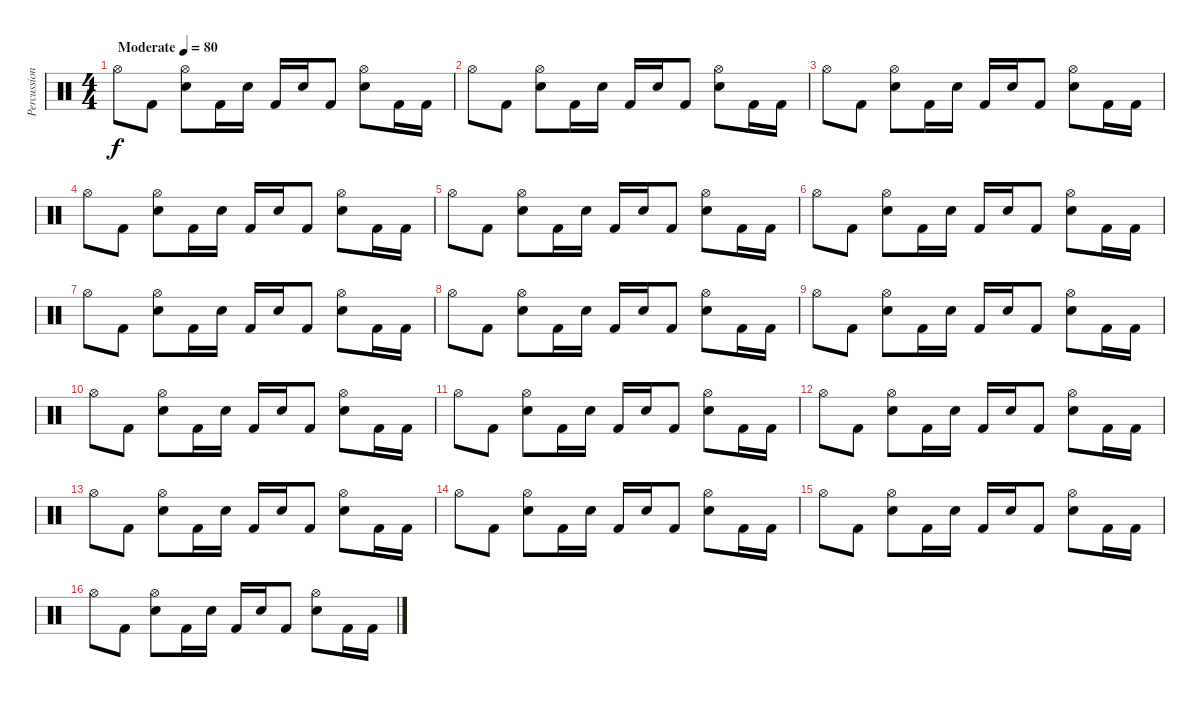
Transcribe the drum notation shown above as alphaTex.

\track ("Percussions" "Percussion") {instrument percussion}
\staff {score}
\articulation defaults
\ts (4 4)
\tempo (80 "Moderate")
\clef neutral
\ks aminor "Hi-Hat (open)".8{dy f} "Kick (hit) 2".8
("Hi-Hat (open)" "Electric Snare (hit)").8 "Kick (hit) 2".16 "Electric Snare (hit)".16 "Kick (hit) 2".16 "Electric Snare (hit)".16 "Kick (hit) 2".8 ("Hi-Hat (open)" "Electric Snare (hit)").8 "Kick (hit) 2".16 "Kick (hit) 2".16 |
"Hi-Hat (open)".8 "Kick (hit) 2".8 ("Hi-Hat (open)" "Electric Snare (hit)").8 "Kick (hit) 2".16 "Electric Snare (hit)".16 "Kick (hit) 2".16 "Electric Snare (hit)".16 "Kick (hit) 2".8 ("Hi-Hat (open)" "Electric Snare (hit)").8 "Kick (hit) 2".16 "Kick (hit) 2".16 |
"Hi-Hat (open)".8 "Kick (hit) 2".8 ("Hi-Hat (open)" "Electric Snare (hit)").8 "Kick (hit) 2".16 "Electric Snare (hit)".16 "Kick (hit) 2".16 "Electric Snare (hit)".16 "Kick (hit) 2".8 ("Hi-Hat (open)" "Electric Snare (hit)").8 "Kick (hit) 2".16 "Kick (hit) 2".16 |
"Hi-Hat (open)".8 "Kick (hit) 2".8 ("Hi-Hat (open)" "Electric Snare (hit)").8 "Kick (hit) 2".16 "Electric Snare (hit)".16 "Kick (hit) 2".16 "Electric Snare (hit)".16 "Kick (hit) 2".8 ("Hi-Hat (open)" "Electric Snare (hit)").8 "Kick (hit) 2".16 "Kick (hit) 2".16 |
"Hi-Hat (open)".8 "Kick (hit) 2".8 ("Hi-Hat (open)" "Electric Snare (hit)").8 "Kick (hit) 2".16 "Electric Snare (hit)".16 "Kick (hit) 2".16 "Electric Snare (hit)".16 "Kick (hit) 2".8 ("Hi-Hat (open)" "Electric Snare (hit)").8 "Kick (hit) 2".16 "Kick (hit) 2".16 |
"Hi-Hat (open)".8 "Kick (hit) 2".8 ("Hi-Hat (open)" "Electric Snare (hit)").8 "Kick (hit) 2".16 "Electric Snare (hit)".16 "Kick (hit) 2".16 "Electric Snare (hit)".16 "Kick (hit) 2".8 ("Hi-Hat (open)" "Electric Snare (hit)").8 "Kick (hit) 2".16 "Kick (hit) 2".16 |
"Hi-Hat (open)".8 "Kick (hit) 2".8 ("Hi-Hat (open)" "Electric Snare (hit)").8 "Kick (hit) 2".16 "Electric Snare (hit)".16 "Kick (hit) 2".16 "Electric Snare (hit)".16 "Kick (hit) 2".8 ("Hi-Hat (open)" "Electric Snare (hit)").8 "Kick (hit) 2".16 "Kick (hit) 2".16 |
"Hi-Hat (open)".8 "Kick (hit) 2".8 ("Hi-Hat (open)" "Electric Snare (hit)").8 "Kick (hit) 2".16 "Electric Snare (hit)".16 "Kick (hit) 2".16 "Electric Snare (hit)".16 "Kick (hit) 2".8 ("Hi-Hat (open)" "Electric Snare (hit)").8 "Kick (hit) 2".16 "Kick (hit) 2".16 |
"Hi-Hat (open)".8 "Kick (hit) 2".8 ("Hi-Hat (open)" "Electric Snare (hit)").8 "Kick (hit) 2".16 "Electric Snare (hit)".16 "Kick (hit) 2".16 "Electric Snare (hit)".16 "Kick (hit) 2".8 ("Hi-Hat (open)" "Electric Snare (hit)").8 "Kick (hit) 2".16 "Kick (hit) 2".16 |
"Hi-Hat (open)".8 "Kick (hit) 2".8 ("Hi-Hat (open)" "Electric Snare (hit)").8 "Kick (hit) 2".16 "Electric Snare (hit)".16 "Kick (hit) 2".16 "Electric Snare (hit)".16 "Kick (hit) 2".8 ("Hi-Hat (open)" "Electric Snare (hit)").8 "Kick (hit) 2".16 "Kick (hit) 2".16 |
"Hi-Hat (open)".8 "Kick (hit) 2".8 ("Hi-Hat (open)" "Electric Snare (hit)").8 "Kick (hit) 2".16 "Electric Snare (hit)".16 "Kick (hit) 2".16 "Electric Snare (hit)".16 "Kick (hit) 2".8 ("Hi-Hat (open)" "Electric Snare (hit)").8 "Kick (hit) 2".16 "Kick (hit) 2".16 |
"Hi-Hat (open)".8 "Kick (hit) 2".8 ("Hi-Hat (open)" "Electric Snare (hit)").8 "Kick (hit) 2".16 "Electric Snare (hit)".16 "Kick (hit) 2".16 "Electric Snare (hit)".16 "Kick (hit) 2".8 ("Hi-Hat (open)" "Electric Snare (hit)").8 "Kick (hit) 2".16 "Kick (hit) 2".16 |
"Hi-Hat (open)".8 "Kick (hit) 2".8 ("Hi-Hat (open)" "Electric Snare (hit)").8 "Kick (hit) 2".16 "Electric Snare (hit)".16 "Kick (hit) 2".16 "Electric Snare (hit)".16 "Kick (hit) 2".8 ("Hi-Hat (open)" "Electric Snare (hit)").8 "Kick (hit) 2".16 "Kick (hit) 2".16 |
"Hi-Hat (open)".8 "Kick (hit) 2".8 ("Hi-Hat (open)" "Electric Snare (hit)").8 "Kick (hit) 2".16 "Electric Snare (hit)".16 "Kick (hit) 2".16 "Electric Snare (hit)".16 "Kick (hit) 2".8 ("Hi-Hat (open)" "Electric Snare (hit)").8 "Kick (hit) 2".16 "Kick (hit) 2".16 |
"Hi-Hat (open)".8 "Kick (hit) 2".8 ("Hi-Hat (open)" "Electric Snare (hit)").8 "Kick (hit) 2".16 "Electric Snare (hit)".16 "Kick (hit) 2".16 "Electric Snare (hit)".16 "Kick (hit) 2".8 ("Hi-Hat (open)" "Electric Snare (hit)").8 "Kick (hit) 2".16 "Kick (hit) 2".16 |
"Hi-Hat (open)".8 "Kick (hit) 2".8 ("Hi-Hat (open)" "Electric Snare (hit)").8 "Kick (hit) 2".16 "Electric Snare (hit)".16 "Kick (hit) 2".16 "Electric Snare (hit)".16 "Kick (hit) 2".8 ("Hi-Hat (open)" "Electric Snare (hit)").8 "Kick (hit) 2".16 "Kick (hit) 2".16
